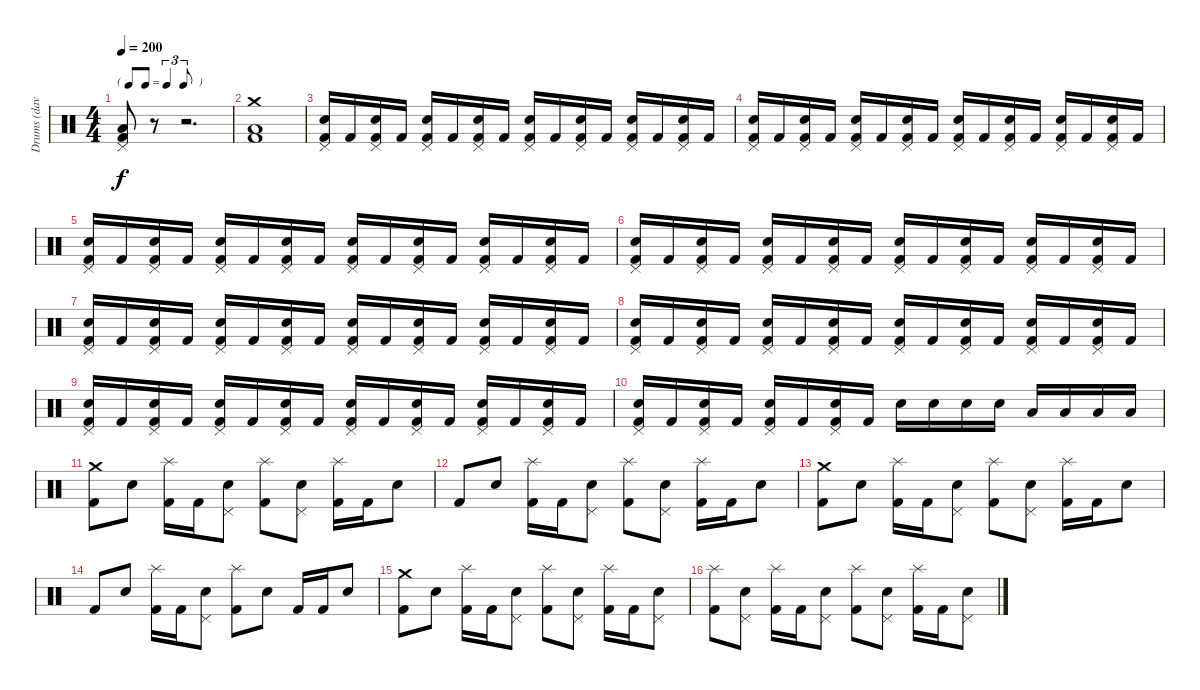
\track ("Drums (dave)" "Drums (dav") {instrument percussion}
\staff {score}
\articulation defaults
\ts (4 4)
\tf triplet8th
\tempo 200
\clef neutral
\ks c
("Pedal Hi-Hat (hit)" "Kick (hit) 2" "Low Floor Tom (hit)").8{dy f} r.8 r.2{d} |
("Crash medium (hit)" "Kick (hit) 2" "Low Floor Tom (hit)").1 |
("Snare (hit) 2" "Pedal Hi-Hat (hit)" "Kick (hit) 2").16 "Kick (hit) 2".16 ("Snare (hit) 2" "Pedal Hi-Hat (hit)" "Kick (hit) 2").16 "Kick (hit) 2".16 ("Snare (hit) 2" "Pedal Hi-Hat (hit)" "Kick (hit) 2").16 "Kick (hit) 2".16 ("Snare (hit) 2" "Pedal Hi-Hat (hit)" "Kick (hit) 2").16 "Kick (hit) 2".16 ("Snare (hit) 2" "Pedal Hi-Hat (hit)" "Kick (hit) 2").16 "Kick (hit) 2".16 ("Snare (hit) 2" "Pedal Hi-Hat (hit)" "Kick (hit) 2").16 "Kick (hit) 2".16 ("Snare (hit) 2" "Pedal Hi-Hat (hit)" "Kick (hit) 2").16 "Kick (hit) 2".16 ("Snare (hit) 2" "Pedal Hi-Hat (hit)" "Kick (hit) 2").16 "Kick (hit) 2".16 |
("Snare (hit) 2" "Pedal Hi-Hat (hit)" "Kick (hit) 2").16 "Kick (hit) 2".16 ("Snare (hit) 2" "Pedal Hi-Hat (hit)" "Kick (hit) 2").16 "Kick (hit) 2".16 ("Snare (hit) 2" "Pedal Hi-Hat (hit)" "Kick (hit) 2").16 "Kick (hit) 2".16 ("Snare (hit) 2" "Pedal Hi-Hat (hit)" "Kick (hit) 2").16 "Kick (hit) 2".16 ("Snare (hit) 2" "Pedal Hi-Hat (hit)" "Kick (hit) 2").16 "Kick (hit) 2".16 ("Snare (hit) 2" "Pedal Hi-Hat (hit)" "Kick (hit) 2").16 "Kick (hit) 2".16 ("Snare (hit) 2" "Pedal Hi-Hat (hit)" "Kick (hit) 2").16 "Kick (hit) 2".16 ("Snare (hit) 2" "Pedal Hi-Hat (hit)" "Kick (hit) 2").16 "Kick (hit) 2".16 |
("Snare (hit) 2" "Pedal Hi-Hat (hit)" "Kick (hit) 2").16 "Kick (hit) 2".16 ("Snare (hit) 2" "Pedal Hi-Hat (hit)" "Kick (hit) 2").16 "Kick (hit) 2".16 ("Snare (hit) 2" "Pedal Hi-Hat (hit)" "Kick (hit) 2").16 "Kick (hit) 2".16 ("Snare (hit) 2" "Pedal Hi-Hat (hit)" "Kick (hit) 2").16 "Kick (hit) 2".16 ("Snare (hit) 2" "Pedal Hi-Hat (hit)" "Kick (hit) 2").16 "Kick (hit) 2".16 ("Snare (hit) 2" "Pedal Hi-Hat (hit)" "Kick (hit) 2").16 "Kick (hit) 2".16 ("Snare (hit) 2" "Pedal Hi-Hat (hit)" "Kick (hit) 2").16 "Kick (hit) 2".16 ("Snare (hit) 2" "Pedal Hi-Hat (hit)" "Kick (hit) 2").16 "Kick (hit) 2".16 |
("Snare (hit) 2" "Pedal Hi-Hat (hit)" "Kick (hit) 2").16 "Kick (hit) 2".16 ("Snare (hit) 2" "Pedal Hi-Hat (hit)" "Kick (hit) 2").16 "Kick (hit) 2".16 ("Snare (hit) 2" "Pedal Hi-Hat (hit)" "Kick (hit) 2").16 "Kick (hit) 2".16 ("Snare (hit) 2" "Pedal Hi-Hat (hit)" "Kick (hit) 2").16 "Kick (hit) 2".16 ("Snare (hit) 2" "Pedal Hi-Hat (hit)" "Kick (hit) 2").16 "Kick (hit) 2".16 ("Snare (hit) 2" "Pedal Hi-Hat (hit)" "Kick (hit) 2").16 "Kick (hit) 2".16 ("Snare (hit) 2" "Pedal Hi-Hat (hit)" "Kick (hit) 2").16 "Kick (hit) 2".16 ("Snare (hit) 2" "Pedal Hi-Hat (hit)" "Kick (hit) 2").16 "Kick (hit) 2".16 |
("Snare (hit) 2" "Pedal Hi-Hat (hit)" "Kick (hit) 2").16 "Kick (hit) 2".16 ("Snare (hit) 2" "Pedal Hi-Hat (hit)" "Kick (hit) 2").16 "Kick (hit) 2".16 ("Snare (hit) 2" "Pedal Hi-Hat (hit)" "Kick (hit) 2").16 "Kick (hit) 2".16 ("Snare (hit) 2" "Pedal Hi-Hat (hit)" "Kick (hit) 2").16 "Kick (hit) 2".16 ("Snare (hit) 2" "Pedal Hi-Hat (hit)" "Kick (hit) 2").16 "Kick (hit) 2".16 ("Snare (hit) 2" "Pedal Hi-Hat (hit)" "Kick (hit) 2").16 "Kick (hit) 2".16 ("Snare (hit) 2" "Pedal Hi-Hat (hit)" "Kick (hit) 2").16 "Kick (hit) 2".16 ("Snare (hit) 2" "Pedal Hi-Hat (hit)" "Kick (hit) 2").16 "Kick (hit) 2".16 |
("Snare (hit) 2" "Pedal Hi-Hat (hit)" "Kick (hit) 2").16 "Kick (hit) 2".16 ("Snare (hit) 2" "Pedal Hi-Hat (hit)" "Kick (hit) 2").16 "Kick (hit) 2".16 ("Snare (hit) 2" "Pedal Hi-Hat (hit)" "Kick (hit) 2").16 "Kick (hit) 2".16 ("Snare (hit) 2" "Pedal Hi-Hat (hit)" "Kick (hit) 2").16 "Kick (hit) 2".16 ("Snare (hit) 2" "Pedal Hi-Hat (hit)" "Kick (hit) 2").16 "Kick (hit) 2".16 ("Snare (hit) 2" "Pedal Hi-Hat (hit)" "Kick (hit) 2").16 "Kick (hit) 2".16 ("Snare (hit) 2" "Pedal Hi-Hat (hit)" "Kick (hit) 2").16 "Kick (hit) 2".16 ("Snare (hit) 2" "Pedal Hi-Hat (hit)" "Kick (hit) 2").16 "Kick (hit) 2".16 |
("Snare (hit) 2" "Pedal Hi-Hat (hit)" "Kick (hit) 2").16 "Kick (hit) 2".16 ("Snare (hit) 2" "Pedal Hi-Hat (hit)" "Kick (hit) 2").16 "Kick (hit) 2".16 ("Snare (hit) 2" "Pedal Hi-Hat (hit)" "Kick (hit) 2").16 "Kick (hit) 2".16 ("Snare (hit) 2" "Pedal Hi-Hat (hit)" "Kick (hit) 2").16 "Kick (hit) 2".16 ("Snare (hit) 2" "Pedal Hi-Hat (hit)" "Kick (hit) 2").16 "Kick (hit) 2".16 ("Snare (hit) 2" "Pedal Hi-Hat (hit)" "Kick (hit) 2").16 "Kick (hit) 2".16 ("Snare (hit) 2" "Pedal Hi-Hat (hit)" "Kick (hit) 2").16 "Kick (hit) 2".16 ("Snare (hit) 2" "Pedal Hi-Hat (hit)" "Kick (hit) 2").16 "Kick (hit) 2".16 |
("Snare (hit) 2" "Pedal Hi-Hat (hit)" "Kick (hit) 2").16 "Kick (hit) 2".16 ("Snare (hit) 2" "Pedal Hi-Hat (hit)" "Kick (hit) 2").16 "Kick (hit) 2".16 ("Snare (hit) 2" "Pedal Hi-Hat (hit)" "Kick (hit) 2").16 "Kick (hit) 2".16 ("Snare (hit) 2" "Pedal Hi-Hat (hit)" "Kick (hit) 2").16 "Kick (hit) 2".16 "Snare (hit) 2".16 "Snare (hit) 2".16 "Snare (hit) 2".16 "Snare (hit) 2".16 "Low Floor Tom (hit)".16 "Low Floor Tom (hit)".16 "Low Floor Tom (hit)".16 "Low Floor Tom (hit)".16 |
("Crash medium (hit)" "Kick (hit) 2").8 "Snare (hit) 2".8 ("Splash (hit)" "Kick (hit) 2").16 "Kick (hit) 2".16 ("Pedal Hi-Hat (hit)" "Snare (hit) 2").8 ("Splash (hit)" "Kick (hit) 2").8 ("Pedal Hi-Hat (hit)" "Snare (hit) 2").8 ("Splash (hit)" "Kick (hit) 2").16 "Kick (hit) 2".16 "Snare (hit) 2".8 |
"Kick (hit) 2".8 "Snare (hit) 2".8 ("Splash (hit)" "Kick (hit) 2").16 "Kick (hit) 2".16 ("Pedal Hi-Hat (hit)" "Snare (hit) 2").8 ("Splash (hit)" "Kick (hit) 2").8 ("Pedal Hi-Hat (hit)" "Snare (hit) 2").8 ("Splash (hit)" "Kick (hit) 2").16 "Kick (hit) 2".16 "Snare (hit) 2".8 |
("Crash medium (hit)" "Kick (hit) 2").8 "Snare (hit) 2".8 ("Splash (hit)" "Kick (hit) 2").16 "Kick (hit) 2".16 ("Pedal Hi-Hat (hit)" "Snare (hit) 2").8 ("Splash (hit)" "Kick (hit) 2").8 ("Pedal Hi-Hat (hit)" "Snare (hit) 2").8 ("Splash (hit)" "Kick (hit) 2").16 "Kick (hit) 2".16 "Snare (hit) 2".8 |
"Kick (hit) 2".8 "Snare (hit) 2".8 ("Splash (hit)" "Kick (hit) 2").16 "Kick (hit) 2".16 ("Pedal Hi-Hat (hit)" "Snare (hit) 2").8 ("Splash (hit)" "Kick (hit) 2").8 "Snare (hit) 2".8 "Kick (hit) 2".16 "Kick (hit) 2".16 "Snare (hit) 2".8 |
("Crash medium (hit)" "Kick (hit) 2").8 "Snare (hit) 2".8 ("Splash (hit)" "Kick (hit) 2").16 "Kick (hit) 2".16 ("Pedal Hi-Hat (hit)" "Snare (hit) 2").8 ("Splash (hit)" "Kick (hit) 2").8 ("Pedal Hi-Hat (hit)" "Snare (hit) 2").8 ("Splash (hit)" "Kick (hit) 2").16 "Kick (hit) 2".16 ("Pedal Hi-Hat (hit)" "Snare (hit) 2").8 |
("Splash (hit)" "Kick (hit) 2").8 ("Pedal Hi-Hat (hit)" "Snare (hit) 2").8 ("Splash (hit)" "Kick (hit) 2").16 "Kick (hit) 2".16 ("Pedal Hi-Hat (hit)" "Snare (hit) 2").8 ("Splash (hit)" "Kick (hit) 2").8 ("Pedal Hi-Hat (hit)" "Snare (hit) 2").8 ("Splash (hit)" "Kick (hit) 2").16 "Kick (hit) 2".16 ("Pedal Hi-Hat (hit)" "Snare (hit) 2").8
